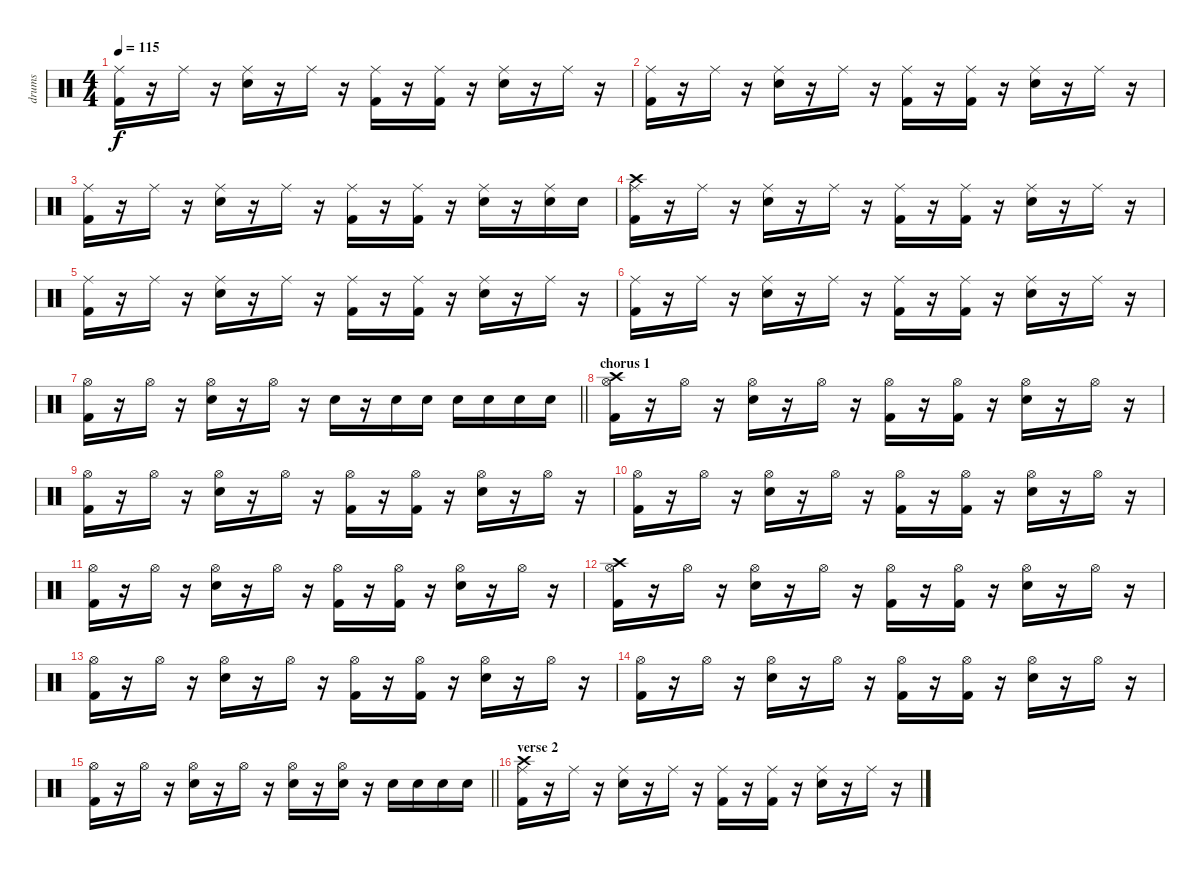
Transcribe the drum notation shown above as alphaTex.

\track ("drums" "drums") {instrument percussion}
\staff {score}
\articulation defaults
\ts (4 4)
\tempo 115
\clef neutral
\ks c
("Kick (hit) 2" "Ride (middle)").16{dy f} r.16 "Ride (middle)".16 r.16 ("Electric Snare (hit)" "Ride (middle)").16 r.16 "Ride (middle)".16 r.16 ("Kick (hit) 2" "Ride (middle)").16 r.16 ("Kick (hit) 2" "Ride (middle)").16 r.16 ("Electric Snare (hit)" "Ride (middle)").16 r.16 "Ride (middle)".16 r.16 |
("Kick (hit) 2" "Ride (middle)").16 r.16 "Ride (middle)".16 r.16 ("Electric Snare (hit)" "Ride (middle)").16 r.16 "Ride (middle)".16 r.16 ("Kick (hit) 2" "Ride (middle)").16 r.16 ("Kick (hit) 2" "Ride (middle)").16 r.16 ("Electric Snare (hit)" "Ride (middle)").16 r.16 "Ride (middle)".16 r.16 |
("Kick (hit) 2" "Ride (middle)").16 r.16 "Ride (middle)".16 r.16 ("Electric Snare (hit)" "Ride (middle)").16 r.16 "Ride (middle)".16 r.16 ("Kick (hit) 2" "Ride (middle)").16 r.16 ("Kick (hit) 2" "Ride (middle)").16 r.16 ("Electric Snare (hit)" "Ride (middle)").16 r.16 ("Electric Snare (hit)" "Ride (middle)").16 "Electric Snare (hit)".16 |
("Kick (hit) 2" "Ride (middle)" "Crash high (hit)").16 r.16 "Ride (middle)".16 r.16 ("Electric Snare (hit)" "Ride (middle)").16 r.16 "Ride (middle)".16 r.16 ("Kick (hit) 2" "Ride (middle)").16 r.16 ("Kick (hit) 2" "Ride (middle)").16 r.16 ("Electric Snare (hit)" "Ride (middle)").16 r.16 "Ride (middle)".16 r.16 |
("Kick (hit) 2" "Ride (middle)").16 r.16 "Ride (middle)".16 r.16 ("Electric Snare (hit)" "Ride (middle)").16 r.16 "Ride (middle)".16 r.16 ("Kick (hit) 2" "Ride (middle)").16 r.16 ("Kick (hit) 2" "Ride (middle)").16 r.16 ("Electric Snare (hit)" "Ride (middle)").16 r.16 "Ride (middle)".16 r.16 |
("Kick (hit) 2" "Ride (middle)").16 r.16 "Ride (middle)".16 r.16 ("Electric Snare (hit)" "Ride (middle)").16 r.16 "Ride (middle)".16 r.16 ("Kick (hit) 2" "Ride (middle)").16 r.16 ("Kick (hit) 2" "Ride (middle)").16 r.16 ("Electric Snare (hit)" "Ride (middle)").16 r.16 "Ride (middle)".16 r.16 |
\barLineRight lightlight
("Kick (hit) 2" "Hi-Hat (open)").16 r.16 "Hi-Hat (open)".16 r.16 ("Electric Snare (hit)" "Hi-Hat (open)").16 r.16 "Hi-Hat (open)".16 r.16 "Electric Snare (hit)".16 r.16 "Electric Snare (hit)".16 "Electric Snare (hit)".16 "Electric Snare (hit)".16 "Electric Snare (hit)".16 "Electric Snare (hit)".16 "Electric Snare (hit)".16 |
\section ("" "chorus 1")
("Kick (hit) 2" "Hi-Hat (open)" "Crash high (hit)").16 r.16 "Hi-Hat (open)".16 r.16 ("Electric Snare (hit)" "Hi-Hat (open)").16 r.16 "Hi-Hat (open)".16 r.16 ("Kick (hit) 2" "Hi-Hat (open)").16 r.16 ("Kick (hit) 2" "Hi-Hat (open)").16 r.16 ("Electric Snare (hit)" "Hi-Hat (open)").16 r.16 "Hi-Hat (open)".16 r.16 |
("Kick (hit) 2" "Hi-Hat (open)").16 r.16 "Hi-Hat (open)".16 r.16 ("Electric Snare (hit)" "Hi-Hat (open)").16 r.16 "Hi-Hat (open)".16 r.16 ("Kick (hit) 2" "Hi-Hat (open)").16 r.16 ("Kick (hit) 2" "Hi-Hat (open)").16 r.16 ("Electric Snare (hit)" "Hi-Hat (open)").16 r.16 "Hi-Hat (open)".16 r.16 |
("Kick (hit) 2" "Hi-Hat (open)").16 r.16 "Hi-Hat (open)".16 r.16 ("Electric Snare (hit)" "Hi-Hat (open)").16 r.16 "Hi-Hat (open)".16 r.16 ("Kick (hit) 2" "Hi-Hat (open)").16 r.16 ("Kick (hit) 2" "Hi-Hat (open)").16 r.16 ("Electric Snare (hit)" "Hi-Hat (open)").16 r.16 "Hi-Hat (open)".16 r.16 |
("Kick (hit) 2" "Hi-Hat (open)").16 r.16 "Hi-Hat (open)".16 r.16 ("Electric Snare (hit)" "Hi-Hat (open)").16 r.16 "Hi-Hat (open)".16 r.16 ("Kick (hit) 2" "Hi-Hat (open)").16 r.16 ("Kick (hit) 2" "Hi-Hat (open)").16 r.16 ("Electric Snare (hit)" "Hi-Hat (open)").16 r.16 "Hi-Hat (open)".16 r.16 |
("Kick (hit) 2" "Hi-Hat (open)" "Crash high (hit)").16 r.16 "Hi-Hat (open)".16 r.16 ("Electric Snare (hit)" "Hi-Hat (open)").16 r.16 "Hi-Hat (open)".16 r.16 ("Kick (hit) 2" "Hi-Hat (open)").16 r.16 ("Kick (hit) 2" "Hi-Hat (open)").16 r.16 ("Electric Snare (hit)" "Hi-Hat (open)").16 r.16 "Hi-Hat (open)".16 r.16 |
("Kick (hit) 2" "Hi-Hat (open)").16 r.16 "Hi-Hat (open)".16 r.16 ("Electric Snare (hit)" "Hi-Hat (open)").16 r.16 "Hi-Hat (open)".16 r.16 ("Kick (hit) 2" "Hi-Hat (open)").16 r.16 ("Kick (hit) 2" "Hi-Hat (open)").16 r.16 ("Electric Snare (hit)" "Hi-Hat (open)").16 r.16 "Hi-Hat (open)".16 r.16 |
("Kick (hit) 2" "Hi-Hat (open)").16 r.16 "Hi-Hat (open)".16 r.16 ("Electric Snare (hit)" "Hi-Hat (open)").16 r.16 "Hi-Hat (open)".16 r.16 ("Kick (hit) 2" "Hi-Hat (open)").16 r.16 ("Kick (hit) 2" "Hi-Hat (open)").16 r.16 ("Electric Snare (hit)" "Hi-Hat (open)").16 r.16 "Hi-Hat (open)".16 r.16 |
\barLineRight lightlight
("Kick (hit) 2" "Hi-Hat (open)").16 r.16 "Hi-Hat (open)".16 r.16 ("Electric Snare (hit)" "Hi-Hat (open)").16 r.16 "Hi-Hat (open)".16 r.16 ("Electric Snare (hit)" "Hi-Hat (open)").16 r.16 ("Electric Snare (hit)" "Hi-Hat (open)").16 r.16 "Electric Snare (hit)".16 "Electric Snare (hit)".16 "Electric Snare (hit)".16 "Electric Snare (hit)".16 |
\section ("" "verse 2")
("Kick (hit) 2" "Ride (middle)" "Crash high (hit)").16 r.16 "Ride (middle)".16 r.16 ("Electric Snare (hit)" "Ride (middle)").16 r.16 "Ride (middle)".16 r.16 ("Kick (hit) 2" "Ride (middle)").16 r.16 ("Kick (hit) 2" "Ride (middle)").16 r.16 ("Electric Snare (hit)" "Ride (middle)").16 r.16 "Ride (middle)".16 r.16
